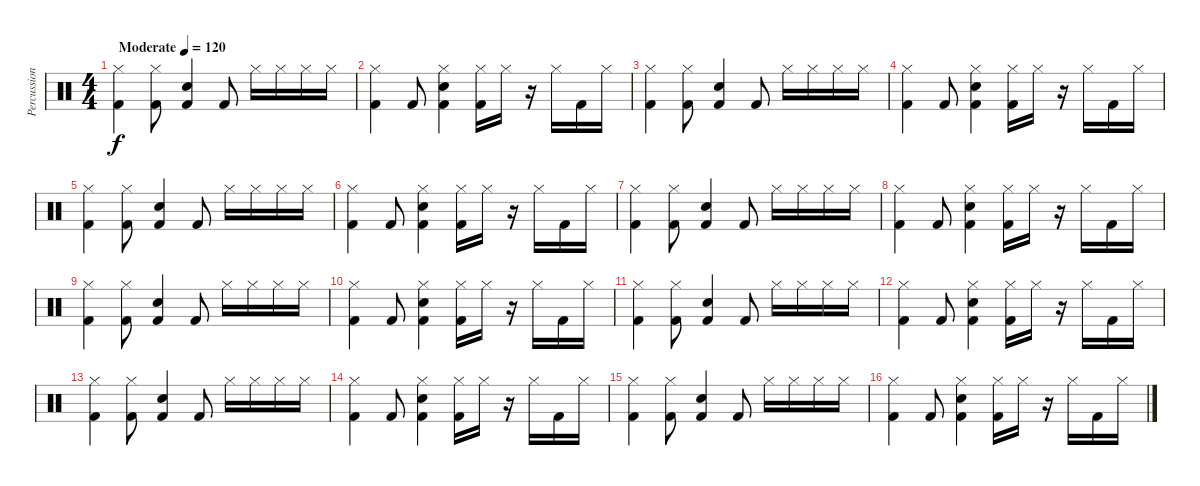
\track ("Percussions" "Percussion") {instrument percussion}
\staff {score}
\articulation defaults
\ts (4 4)
\tempo (120 "Moderate")
\clef neutral
\ks c
("Hi-Hat (closed)" "Kick (hit) 2").4{dy f} ("Hi-Hat (closed)" "Kick (hit) 2").8 ("Kick (hit) 2" "Snare (hit) 2").4 "Kick (hit) 2".8 "Hi-Hat (closed)".16 "Hi-Hat (closed)".16 "Hi-Hat (closed)".16 "Hi-Hat (closed)".16 |
("Hi-Hat (closed)" "Kick (hit) 2").4 "Kick (hit) 2".8 ("Hi-Hat (closed)" "Kick (hit) 2" "Snare (hit) 2").4 ("Hi-Hat (closed)" "Kick (hit) 2").16 "Hi-Hat (closed)".16 r.16 "Hi-Hat (closed)".16 "Kick (hit) 2".16 "Hi-Hat (closed)".16 |
("Hi-Hat (closed)" "Kick (hit) 2").4 ("Hi-Hat (closed)" "Kick (hit) 2").8 ("Kick (hit) 2" "Snare (hit) 2").4 "Kick (hit) 2".8 "Hi-Hat (closed)".16 "Hi-Hat (closed)".16 "Hi-Hat (closed)".16 "Hi-Hat (closed)".16 |
("Hi-Hat (closed)" "Kick (hit) 2").4 "Kick (hit) 2".8 ("Hi-Hat (closed)" "Kick (hit) 2" "Snare (hit) 2").4 ("Hi-Hat (closed)" "Kick (hit) 2").16 "Hi-Hat (closed)".16 r.16 "Hi-Hat (closed)".16 "Kick (hit) 2".16 "Hi-Hat (closed)".16 |
("Hi-Hat (closed)" "Kick (hit) 2").4 ("Hi-Hat (closed)" "Kick (hit) 2").8 ("Kick (hit) 2" "Snare (hit) 2").4 "Kick (hit) 2".8 "Hi-Hat (closed)".16 "Hi-Hat (closed)".16 "Hi-Hat (closed)".16 "Hi-Hat (closed)".16 |
("Hi-Hat (closed)" "Kick (hit) 2").4 "Kick (hit) 2".8 ("Hi-Hat (closed)" "Kick (hit) 2" "Snare (hit) 2").4 ("Hi-Hat (closed)" "Kick (hit) 2").16 "Hi-Hat (closed)".16 r.16 "Hi-Hat (closed)".16 "Kick (hit) 2".16 "Hi-Hat (closed)".16 |
("Hi-Hat (closed)" "Kick (hit) 2").4 ("Hi-Hat (closed)" "Kick (hit) 2").8 ("Kick (hit) 2" "Snare (hit) 2").4 "Kick (hit) 2".8 "Hi-Hat (closed)".16 "Hi-Hat (closed)".16 "Hi-Hat (closed)".16 "Hi-Hat (closed)".16 |
("Hi-Hat (closed)" "Kick (hit) 2").4 "Kick (hit) 2".8 ("Hi-Hat (closed)" "Kick (hit) 2" "Snare (hit) 2").4 ("Hi-Hat (closed)" "Kick (hit) 2").16 "Hi-Hat (closed)".16 r.16 "Hi-Hat (closed)".16 "Kick (hit) 2".16 "Hi-Hat (closed)".16 |
("Hi-Hat (closed)" "Kick (hit) 2").4 ("Hi-Hat (closed)" "Kick (hit) 2").8 ("Kick (hit) 2" "Snare (hit) 2").4 "Kick (hit) 2".8 "Hi-Hat (closed)".16 "Hi-Hat (closed)".16 "Hi-Hat (closed)".16 "Hi-Hat (closed)".16 |
("Hi-Hat (closed)" "Kick (hit) 2").4 "Kick (hit) 2".8 ("Hi-Hat (closed)" "Kick (hit) 2" "Snare (hit) 2").4 ("Hi-Hat (closed)" "Kick (hit) 2").16 "Hi-Hat (closed)".16 r.16 "Hi-Hat (closed)".16 "Kick (hit) 2".16 "Hi-Hat (closed)".16 |
("Hi-Hat (closed)" "Kick (hit) 2").4 ("Hi-Hat (closed)" "Kick (hit) 2").8 ("Kick (hit) 2" "Snare (hit) 2").4 "Kick (hit) 2".8 "Hi-Hat (closed)".16 "Hi-Hat (closed)".16 "Hi-Hat (closed)".16 "Hi-Hat (closed)".16 |
("Hi-Hat (closed)" "Kick (hit) 2").4 "Kick (hit) 2".8 ("Hi-Hat (closed)" "Kick (hit) 2" "Snare (hit) 2").4 ("Hi-Hat (closed)" "Kick (hit) 2").16 "Hi-Hat (closed)".16 r.16 "Hi-Hat (closed)".16 "Kick (hit) 2".16 "Hi-Hat (closed)".16 |
("Hi-Hat (closed)" "Kick (hit) 2").4 ("Hi-Hat (closed)" "Kick (hit) 2").8 ("Kick (hit) 2" "Snare (hit) 2").4 "Kick (hit) 2".8 "Hi-Hat (closed)".16 "Hi-Hat (closed)".16 "Hi-Hat (closed)".16 "Hi-Hat (closed)".16 |
("Hi-Hat (closed)" "Kick (hit) 2").4 "Kick (hit) 2".8 ("Hi-Hat (closed)" "Kick (hit) 2" "Snare (hit) 2").4 ("Hi-Hat (closed)" "Kick (hit) 2").16 "Hi-Hat (closed)".16 r.16 "Hi-Hat (closed)".16 "Kick (hit) 2".16 "Hi-Hat (closed)".16 |
("Hi-Hat (closed)" "Kick (hit) 2").4 ("Hi-Hat (closed)" "Kick (hit) 2").8 ("Kick (hit) 2" "Snare (hit) 2").4 "Kick (hit) 2".8 "Hi-Hat (closed)".16 "Hi-Hat (closed)".16 "Hi-Hat (closed)".16 "Hi-Hat (closed)".16 |
("Hi-Hat (closed)" "Kick (hit) 2").4 "Kick (hit) 2".8 ("Hi-Hat (closed)" "Kick (hit) 2" "Snare (hit) 2").4 ("Hi-Hat (closed)" "Kick (hit) 2").16 "Hi-Hat (closed)".16 r.16 "Hi-Hat (closed)".16 "Kick (hit) 2".16 "Hi-Hat (closed)".16
